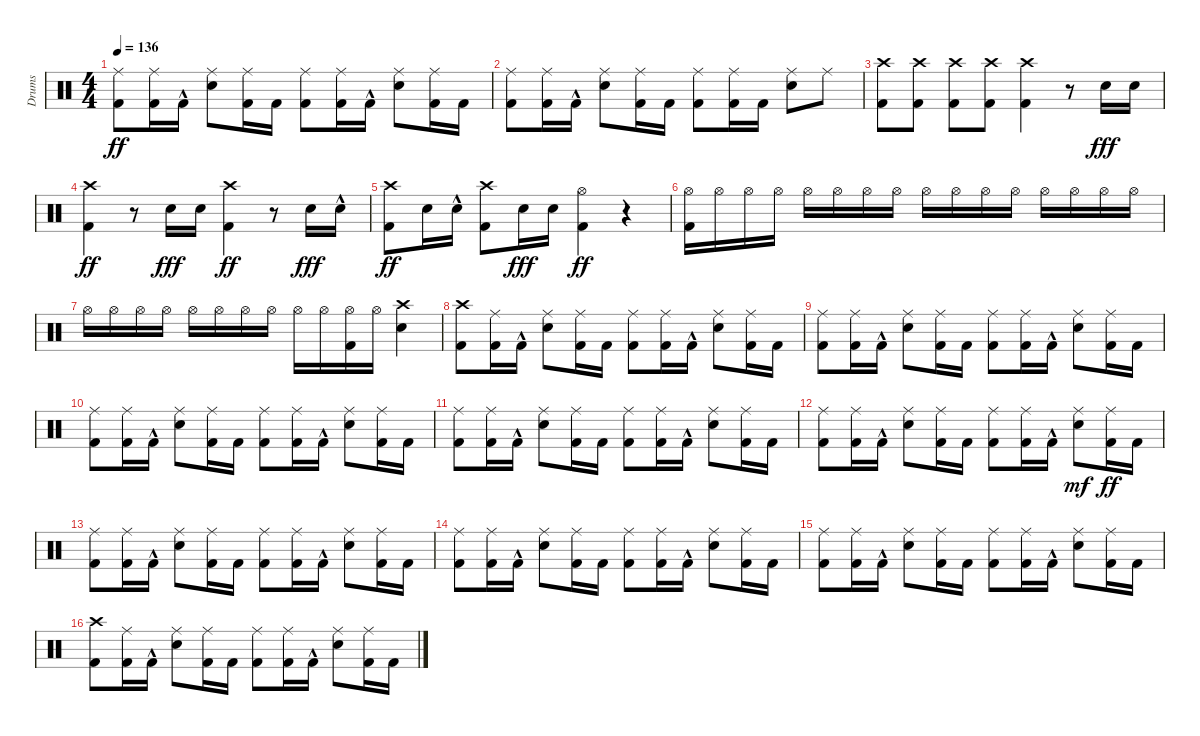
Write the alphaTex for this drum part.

\track ("Drums" "Drums") {instrument percussion}
\staff {score}
\articulation defaults
\ts (4 4)
\tempo 136
\clef neutral
\ks c
("Kick (hit) 2" "Ride (middle)").8{dy ff} ("Kick (hit) 2" "Ride (middle)").16 "Kick (hit) 2"{hac}.16 ("Snare (hit) 2" "Ride (middle)").8 ("Kick (hit) 2" "Ride (middle)").16 "Kick (hit) 2".16 ("Kick (hit) 2" "Ride (middle)").8 ("Kick (hit) 2" "Ride (middle)").16 "Kick (hit) 2"{hac}.16 ("Snare (hit) 2" "Ride (middle)").8 ("Kick (hit) 2" "Ride (middle)").16 "Kick (hit) 2".16 |
("Kick (hit) 2" "Ride (middle)").8 ("Kick (hit) 2" "Ride (middle)").16 "Kick (hit) 2"{hac}.16 ("Snare (hit) 2" "Ride (middle)").8 ("Kick (hit) 2" "Ride (middle)").16 "Kick (hit) 2".16 ("Kick (hit) 2" "Ride (middle)").8 ("Kick (hit) 2" "Ride (middle)").16 "Kick (hit) 2".16 ("Snare (hit) 2" "Ride (middle)").8 "Ride (middle)".8 |
("Kick (hit) 2" "Crash high (hit)").8 ("Kick (hit) 2" "Crash high (hit)").8 ("Kick (hit) 2" "Crash high (hit)").8 ("Kick (hit) 2" "Crash high (hit)").8 ("Kick (hit) 2" "Crash high (hit)").4 r.8 "Snare (hit) 2".16{dy fff} "Snare (hit) 2".16 |
("Kick (hit) 2" "Crash high (hit)").4{dy ff} r.8 "Snare (hit) 2".16{dy fff} "Snare (hit) 2".16 ("Kick (hit) 2" "Crash high (hit)").4{dy ff} r.8 "Snare (hit) 2".16{dy fff} "Snare (hit) 2"{hac}.16 |
("Kick (hit) 2" "Crash high (hit)").8{dy ff} "Snare (hit) 2".16 "Snare (hit) 2"{hac}.16 ("Kick (hit) 2" "Crash high (hit)").8 "Snare (hit) 2".16{dy fff} "Snare (hit) 2".16 ("Kick (hit) 2" "Hi-Hat (open)").4{dy ff} r.4 |
("Kick (hit) 2" "Hi-Hat (open)").16 "Hi-Hat (open)".16 "Hi-Hat (open)".16 "Hi-Hat (open)".16 "Hi-Hat (open)".16 "Hi-Hat (open)".16 "Hi-Hat (open)".16 "Hi-Hat (open)".16 "Hi-Hat (open)".16 "Hi-Hat (open)".16 "Hi-Hat (open)".16 "Hi-Hat (open)".16 "Hi-Hat (open)".16 "Hi-Hat (open)".16 "Hi-Hat (open)".16 "Hi-Hat (open)".16 |
"Hi-Hat (open)".16 "Hi-Hat (open)".16 "Hi-Hat (open)".16 "Hi-Hat (open)".16 "Hi-Hat (open)".16 "Hi-Hat (open)".16 "Hi-Hat (open)".16 "Hi-Hat (open)".16 "Hi-Hat (open)".16 "Hi-Hat (open)".16 ("Kick (hit) 2" "Hi-Hat (open)").16 "Hi-Hat (open)".16 ("Snare (hit) 2" "Crash high (hit)").4 |
("Kick (hit) 2" "Crash high (hit)").8 ("Kick (hit) 2" "Ride (middle)").16 "Kick (hit) 2"{hac}.16 ("Snare (hit) 2" "Ride (middle)").8 ("Kick (hit) 2" "Ride (middle)").16 "Kick (hit) 2".16 ("Kick (hit) 2" "Ride (middle)").8 ("Kick (hit) 2" "Ride (middle)").16 "Kick (hit) 2"{hac}.16 ("Snare (hit) 2" "Ride (middle)").8 ("Kick (hit) 2" "Ride (middle)").16 "Kick (hit) 2".16 |
("Kick (hit) 2" "Ride (middle)").8 ("Kick (hit) 2" "Ride (middle)").16 "Kick (hit) 2"{hac}.16 ("Snare (hit) 2" "Ride (middle)").8 ("Kick (hit) 2" "Ride (middle)").16 "Kick (hit) 2".16 ("Kick (hit) 2" "Ride (middle)").8 ("Kick (hit) 2" "Ride (middle)").16 "Kick (hit) 2"{hac}.16 ("Snare (hit) 2" "Ride (middle)").8 ("Kick (hit) 2" "Ride (middle)").16 "Kick (hit) 2".16 |
("Kick (hit) 2" "Ride (middle)").8 ("Kick (hit) 2" "Ride (middle)").16 "Kick (hit) 2"{hac}.16 ("Snare (hit) 2" "Ride (middle)").8 ("Kick (hit) 2" "Ride (middle)").16 "Kick (hit) 2".16 ("Kick (hit) 2" "Ride (middle)").8 ("Kick (hit) 2" "Ride (middle)").16 "Kick (hit) 2"{hac}.16 ("Snare (hit) 2" "Ride (middle)").8 ("Kick (hit) 2" "Ride (middle)").16 "Kick (hit) 2".16 |
("Kick (hit) 2" "Ride (middle)").8 ("Kick (hit) 2" "Ride (middle)").16 "Kick (hit) 2"{hac}.16 ("Snare (hit) 2" "Ride (middle)").8 ("Kick (hit) 2" "Ride (middle)").16 "Kick (hit) 2".16 ("Kick (hit) 2" "Ride (middle)").8 ("Kick (hit) 2" "Ride (middle)").16 "Kick (hit) 2"{hac}.16 ("Snare (hit) 2" "Ride (middle)").8 ("Kick (hit) 2" "Ride (middle)").16 "Kick (hit) 2".16 |
("Kick (hit) 2" "Ride (middle)").8 ("Kick (hit) 2" "Ride (middle)").16 "Kick (hit) 2"{hac}.16 ("Snare (hit) 2" "Ride (middle)").8 ("Kick (hit) 2" "Ride (middle)").16 "Kick (hit) 2".16 ("Kick (hit) 2" "Ride (middle)").8 ("Kick (hit) 2" "Ride (middle)").16 "Kick (hit) 2"{hac}.16 ("Snare (hit) 2" "Ride (middle)").8{dy mf} ("Kick (hit) 2" "Ride (middle)").16{dy ff} "Kick (hit) 2".16 |
("Kick (hit) 2" "Ride (middle)").8 ("Kick (hit) 2" "Ride (middle)").16 "Kick (hit) 2"{hac}.16 ("Snare (hit) 2" "Ride (middle)").8 ("Kick (hit) 2" "Ride (middle)").16 "Kick (hit) 2".16 ("Kick (hit) 2" "Ride (middle)").8 ("Kick (hit) 2" "Ride (middle)").16 "Kick (hit) 2"{hac}.16 ("Snare (hit) 2" "Ride (middle)").8 ("Kick (hit) 2" "Ride (middle)").16 "Kick (hit) 2".16 |
("Kick (hit) 2" "Ride (middle)").8 ("Kick (hit) 2" "Ride (middle)").16 "Kick (hit) 2"{hac}.16 ("Snare (hit) 2" "Ride (middle)").8 ("Kick (hit) 2" "Ride (middle)").16 "Kick (hit) 2".16 ("Kick (hit) 2" "Ride (middle)").8 ("Kick (hit) 2" "Ride (middle)").16 "Kick (hit) 2"{hac}.16 ("Snare (hit) 2" "Ride (middle)").8 ("Kick (hit) 2" "Ride (middle)").16 "Kick (hit) 2".16 |
("Kick (hit) 2" "Ride (middle)").8 ("Kick (hit) 2" "Ride (middle)").16 "Kick (hit) 2"{hac}.16 ("Snare (hit) 2" "Ride (middle)").8 ("Kick (hit) 2" "Ride (middle)").16 "Kick (hit) 2".16 ("Kick (hit) 2" "Ride (middle)").8 ("Kick (hit) 2" "Ride (middle)").16 "Kick (hit) 2"{hac}.16 ("Snare (hit) 2" "Ride (middle)").8 ("Kick (hit) 2" "Ride (middle)").16 "Kick (hit) 2".16 |
("Kick (hit) 2" "Crash high (hit)").8 ("Kick (hit) 2" "Ride (middle)").16 "Kick (hit) 2"{hac}.16 ("Snare (hit) 2" "Ride (middle)").8 ("Kick (hit) 2" "Ride (middle)").16 "Kick (hit) 2".16 ("Kick (hit) 2" "Ride (middle)").8 ("Kick (hit) 2" "Ride (middle)").16 "Kick (hit) 2"{hac}.16 ("Snare (hit) 2" "Ride (middle)").8 ("Kick (hit) 2" "Ride (middle)").16 "Kick (hit) 2".16
